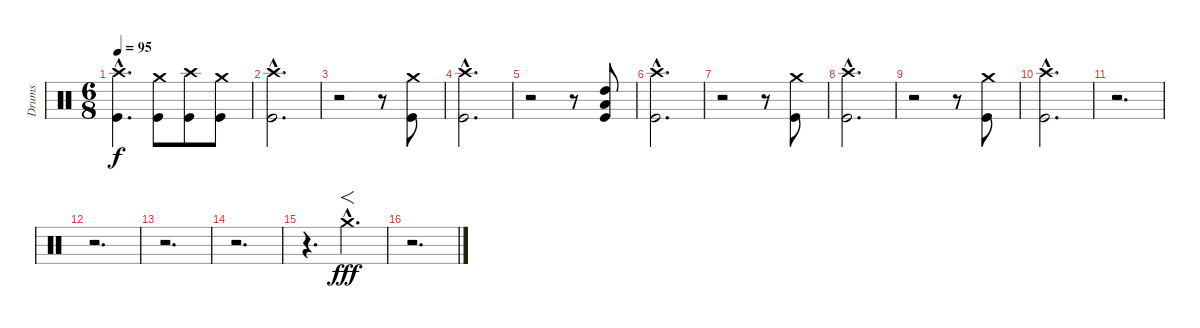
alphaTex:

\track ("Drums" "Drums") {instrument percussion}
\staff {score}
\articulation defaults
\ts (6 8)
\tempo 95
\clef neutral
\ks c
("Crash high (hit)"{hac} "Kick (hit)"{hac}).4{d dy f} ("Crash medium (hit)" "Kick (hit)").8 ("Crash high (hit)" "Kick (hit)").8 ("Crash medium (hit)" "Kick (hit)").8 |
("Crash high (hit)"{hac} "Kick (hit)"{hac}).2{d} |
r.2 r.8 ("Crash medium (hit)" "Kick (hit)").8 |
("Crash high (hit)"{hac} "Kick (hit)"{hac}).2{d} |
r.2 r.8 ("High Tom (hit)" "Low Tom (hit)" "Kick (hit)").8 |
("Crash high (hit)"{hac} "Kick (hit)"{hac}).2{d} |
r.2 r.8 ("Crash medium (hit)" "Kick (hit)").8 |
("Crash high (hit)"{hac} "Kick (hit)"{hac}).2{d} |
r.2 r.8 ("Crash medium (hit)" "Kick (hit)").8 |
("Crash high (hit)"{hac} "Kick (hit)"{hac}).2{d} |
r.2{d} |
r.2{d} |
r.2{d} |
r.2{d} |
r.4{d} "Crash medium (hit)"{hac}.4{f d dy fff} |
r.2{d}
